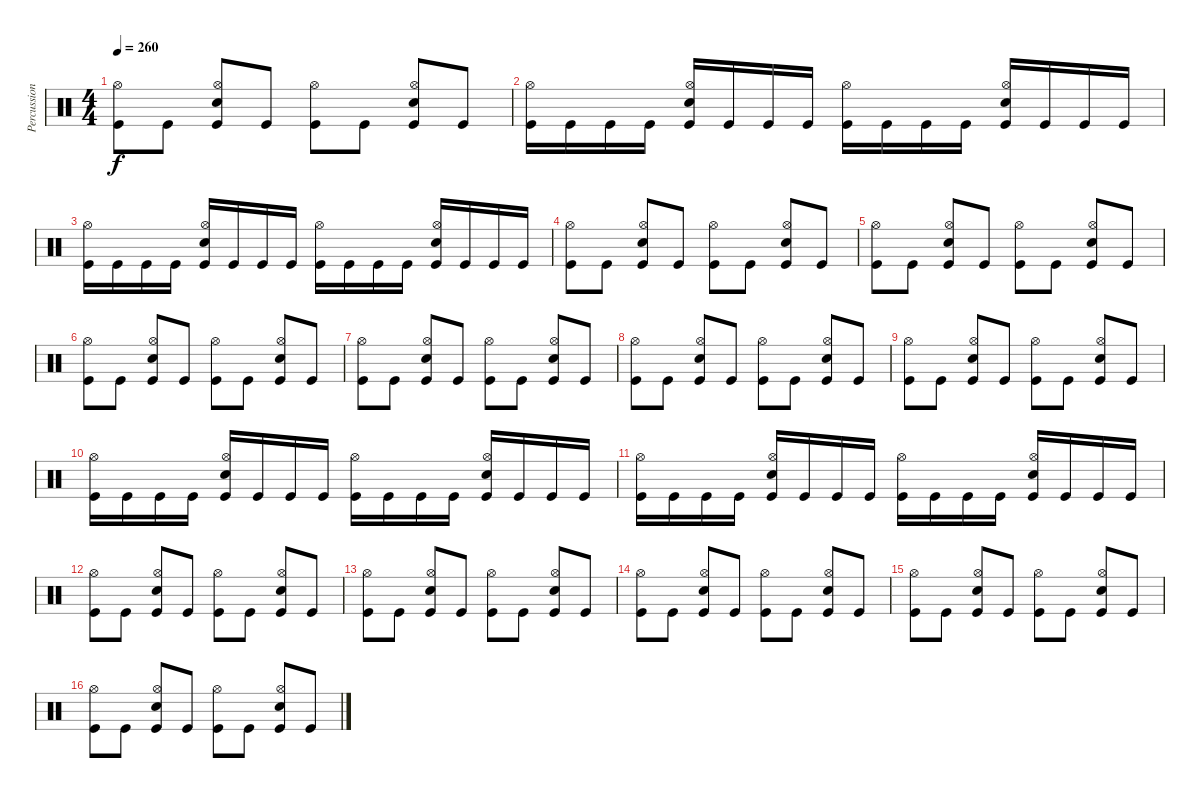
\track ("Percussion" "Percussion") {instrument percussion}
\staff {score}
\articulation defaults
\ts (4 4)
\tempo 260
\clef neutral
\ks c
("Kick (hit)" "Hi-Hat (open)").8{dy f} "Kick (hit)".8 ("Kick (hit)" "Snare (hit) 2" "Hi-Hat (open)").8 "Kick (hit)".8 ("Kick (hit)" "Hi-Hat (open)").8 "Kick (hit)".8 ("Kick (hit)" "Snare (hit) 2" "Hi-Hat (open)").8 "Kick (hit)".8 |
("Kick (hit)" "Hi-Hat (open)").16 "Kick (hit)".16 "Kick (hit)".16 "Kick (hit)".16 ("Kick (hit)" "Snare (hit) 2" "Hi-Hat (open)").16 "Kick (hit)".16 "Kick (hit)".16 "Kick (hit)".16 ("Kick (hit)" "Hi-Hat (open)").16 "Kick (hit)".16 "Kick (hit)".16 "Kick (hit)".16 ("Kick (hit)" "Snare (hit) 2" "Hi-Hat (open)").16 "Kick (hit)".16 "Kick (hit)".16 "Kick (hit)".16 |
("Kick (hit)" "Hi-Hat (open)").16 "Kick (hit)".16 "Kick (hit)".16 "Kick (hit)".16 ("Kick (hit)" "Snare (hit) 2" "Hi-Hat (open)").16 "Kick (hit)".16 "Kick (hit)".16 "Kick (hit)".16 ("Kick (hit)" "Hi-Hat (open)").16 "Kick (hit)".16 "Kick (hit)".16 "Kick (hit)".16 ("Kick (hit)" "Snare (hit) 2" "Hi-Hat (open)").16 "Kick (hit)".16 "Kick (hit)".16 "Kick (hit)".16 |
("Kick (hit)" "Hi-Hat (open)").8 "Kick (hit)".8 ("Kick (hit)" "Snare (hit) 2" "Hi-Hat (open)").8 "Kick (hit)".8 ("Kick (hit)" "Hi-Hat (open)").8 "Kick (hit)".8 ("Kick (hit)" "Snare (hit) 2" "Hi-Hat (open)").8 "Kick (hit)".8 |
("Kick (hit)" "Hi-Hat (open)").8 "Kick (hit)".8 ("Kick (hit)" "Snare (hit) 2" "Hi-Hat (open)").8 "Kick (hit)".8 ("Kick (hit)" "Hi-Hat (open)").8 "Kick (hit)".8 ("Kick (hit)" "Snare (hit) 2" "Hi-Hat (open)").8 "Kick (hit)".8 |
("Kick (hit)" "Hi-Hat (open)").8 "Kick (hit)".8 ("Kick (hit)" "Snare (hit) 2" "Hi-Hat (open)").8 "Kick (hit)".8 ("Kick (hit)" "Hi-Hat (open)").8 "Kick (hit)".8 ("Kick (hit)" "Snare (hit) 2" "Hi-Hat (open)").8 "Kick (hit)".8 |
("Kick (hit)" "Hi-Hat (open)").8 "Kick (hit)".8 ("Kick (hit)" "Snare (hit) 2" "Hi-Hat (open)").8 "Kick (hit)".8 ("Kick (hit)" "Hi-Hat (open)").8 "Kick (hit)".8 ("Kick (hit)" "Snare (hit) 2" "Hi-Hat (open)").8 "Kick (hit)".8 |
("Kick (hit)" "Hi-Hat (open)").8 "Kick (hit)".8 ("Kick (hit)" "Snare (hit) 2" "Hi-Hat (open)").8 "Kick (hit)".8 ("Kick (hit)" "Hi-Hat (open)").8 "Kick (hit)".8 ("Kick (hit)" "Snare (hit) 2" "Hi-Hat (open)").8 "Kick (hit)".8 |
("Kick (hit)" "Hi-Hat (open)").8 "Kick (hit)".8 ("Kick (hit)" "Snare (hit) 2" "Hi-Hat (open)").8 "Kick (hit)".8 ("Kick (hit)" "Hi-Hat (open)").8 "Kick (hit)".8 ("Kick (hit)" "Snare (hit) 2" "Hi-Hat (open)").8 "Kick (hit)".8 |
("Kick (hit)" "Hi-Hat (open)").16 "Kick (hit)".16 "Kick (hit)".16 "Kick (hit)".16 ("Kick (hit)" "Snare (hit) 2" "Hi-Hat (open)").16 "Kick (hit)".16 "Kick (hit)".16 "Kick (hit)".16 ("Kick (hit)" "Hi-Hat (open)").16 "Kick (hit)".16 "Kick (hit)".16 "Kick (hit)".16 ("Kick (hit)" "Snare (hit) 2" "Hi-Hat (open)").16 "Kick (hit)".16 "Kick (hit)".16 "Kick (hit)".16 |
("Kick (hit)" "Hi-Hat (open)").16 "Kick (hit)".16 "Kick (hit)".16 "Kick (hit)".16 ("Kick (hit)" "Snare (hit) 2" "Hi-Hat (open)").16 "Kick (hit)".16 "Kick (hit)".16 "Kick (hit)".16 ("Kick (hit)" "Hi-Hat (open)").16 "Kick (hit)".16 "Kick (hit)".16 "Kick (hit)".16 ("Kick (hit)" "Snare (hit) 2" "Hi-Hat (open)").16 "Kick (hit)".16 "Kick (hit)".16 "Kick (hit)".16 |
("Kick (hit)" "Hi-Hat (open)").8 "Kick (hit)".8 ("Kick (hit)" "Snare (hit) 2" "Hi-Hat (open)").8 "Kick (hit)".8 ("Kick (hit)" "Hi-Hat (open)").8 "Kick (hit)".8 ("Kick (hit)" "Snare (hit) 2" "Hi-Hat (open)").8 "Kick (hit)".8 |
("Kick (hit)" "Hi-Hat (open)").8 "Kick (hit)".8 ("Kick (hit)" "Snare (hit) 2" "Hi-Hat (open)").8 "Kick (hit)".8 ("Kick (hit)" "Hi-Hat (open)").8 "Kick (hit)".8 ("Kick (hit)" "Snare (hit) 2" "Hi-Hat (open)").8 "Kick (hit)".8 |
("Kick (hit)" "Hi-Hat (open)").8 "Kick (hit)".8 ("Kick (hit)" "Snare (hit) 2" "Hi-Hat (open)").8 "Kick (hit)".8 ("Kick (hit)" "Hi-Hat (open)").8 "Kick (hit)".8 ("Kick (hit)" "Snare (hit) 2" "Hi-Hat (open)").8 "Kick (hit)".8 |
("Kick (hit)" "Hi-Hat (open)").8 "Kick (hit)".8 ("Kick (hit)" "Snare (hit) 2" "Hi-Hat (open)").8 "Kick (hit)".8 ("Kick (hit)" "Hi-Hat (open)").8 "Kick (hit)".8 ("Kick (hit)" "Snare (hit) 2" "Hi-Hat (open)").8 "Kick (hit)".8 |
("Kick (hit)" "Hi-Hat (open)").8 "Kick (hit)".8 ("Kick (hit)" "Snare (hit) 2" "Hi-Hat (open)").8 "Kick (hit)".8 ("Kick (hit)" "Hi-Hat (open)").8 "Kick (hit)".8 ("Kick (hit)" "Snare (hit) 2" "Hi-Hat (open)").8 "Kick (hit)".8
